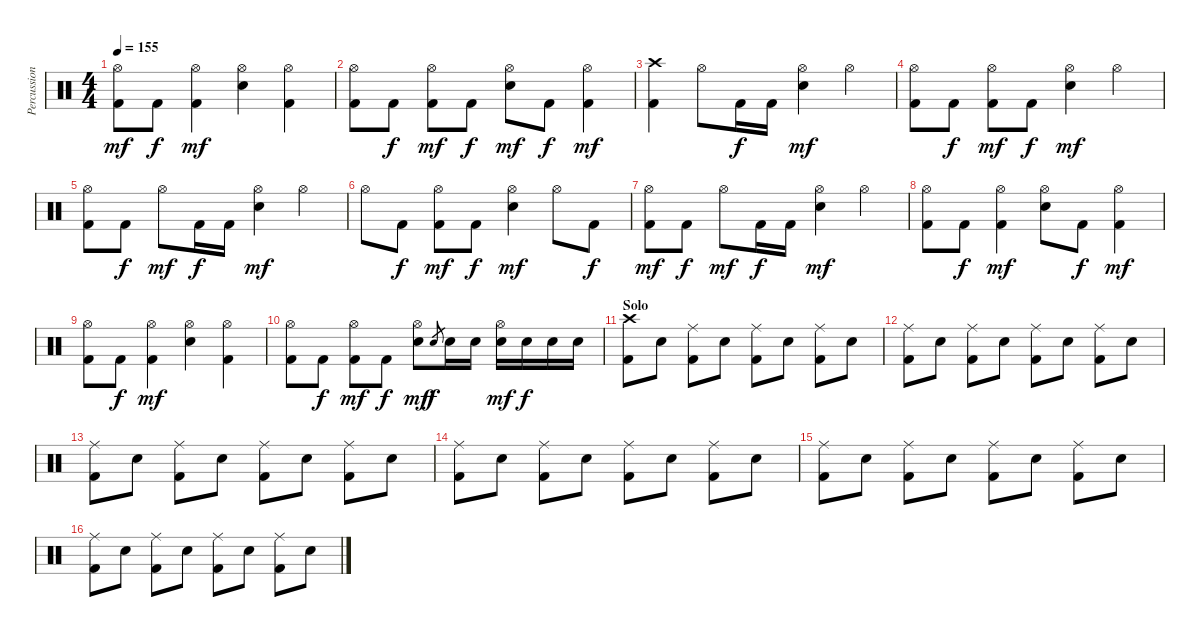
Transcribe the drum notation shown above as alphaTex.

\track ("Percussion" "Percussion") {instrument percussion}
\staff {score}
\articulation defaults
\ts (4 4)
\tempo 155
\clef neutral
\ks c
("Hi-Hat (open)" "Kick (hit) 2").8{dy mf} "Kick (hit) 2".8{dy f} ("Hi-Hat (open)" "Kick (hit) 2").4{dy mf} ("Hi-Hat (open)" "Electric Snare (hit)").4 ("Hi-Hat (open)" "Kick (hit) 2").4 |
("Hi-Hat (open)" "Kick (hit) 2").8 "Kick (hit) 2".8{dy f} ("Hi-Hat (open)" "Kick (hit) 2").8{dy mf} "Kick (hit) 2".8{dy f} ("Hi-Hat (open)" "Electric Snare (hit)").8{dy mf} "Kick (hit) 2".8{dy f} ("Hi-Hat (open)" "Kick (hit) 2").4{dy mf} |
("Crash high (hit)" "Kick (hit) 2").4 "Hi-Hat (open)".8 "Kick (hit) 2".16{dy f} "Kick (hit) 2".16 ("Hi-Hat (open)" "Electric Snare (hit)").4{dy mf} "Hi-Hat (open)".4 |
("Hi-Hat (open)" "Kick (hit) 2").8 "Kick (hit) 2".8{dy f} ("Hi-Hat (open)" "Kick (hit) 2").8{dy mf} "Kick (hit) 2".8{dy f} ("Hi-Hat (open)" "Electric Snare (hit)").4{dy mf} "Hi-Hat (open)".4 |
("Hi-Hat (open)" "Kick (hit) 2").8 "Kick (hit) 2".8{dy f} "Hi-Hat (open)".8{dy mf} "Kick (hit) 2".16{dy f} "Kick (hit) 2".16 ("Hi-Hat (open)" "Electric Snare (hit)").4{dy mf} "Hi-Hat (open)".4 |
"Hi-Hat (open)".8 "Kick (hit) 2".8{dy f} ("Hi-Hat (open)" "Kick (hit) 2").8{dy mf} "Kick (hit) 2".8{dy f} ("Hi-Hat (open)" "Electric Snare (hit)").4{dy mf} "Hi-Hat (open)".8 "Kick (hit) 2".8{dy f} |
("Hi-Hat (open)" "Kick (hit) 2").8{dy mf} "Kick (hit) 2".8{dy f} "Hi-Hat (open)".8{dy mf} "Kick (hit) 2".16{dy f} "Kick (hit) 2".16 ("Hi-Hat (open)" "Electric Snare (hit)").4{dy mf} "Hi-Hat (open)".4 |
("Hi-Hat (open)" "Kick (hit) 2").8 "Kick (hit) 2".8{dy f} ("Hi-Hat (open)" "Kick (hit) 2").4{dy mf} ("Hi-Hat (open)" "Electric Snare (hit)").8 "Kick (hit) 2".8{dy f} ("Hi-Hat (open)" "Kick (hit) 2").4{dy mf} |
("Hi-Hat (open)" "Kick (hit) 2").8 "Kick (hit) 2".8{dy f} ("Hi-Hat (open)" "Kick (hit) 2").4{dy mf} ("Hi-Hat (open)" "Electric Snare (hit)").4 ("Hi-Hat (open)" "Kick (hit) 2").4 |
("Hi-Hat (open)" "Kick (hit) 2").8 "Kick (hit) 2".8{dy f} ("Hi-Hat (open)" "Kick (hit) 2").8{dy mf} "Kick (hit) 2".8{dy f} ("Hi-Hat (open)" "Electric Snare (hit)").8{dy mf} "Electric Snare (hit)".8{gr dy f} "Electric Snare (hit)".16 "Electric Snare (hit)".16 ("Hi-Hat (open)" "Electric Snare (hit)").16{dy mf} "Electric Snare (hit)".16{dy f} "Electric Snare (hit)".16 "Electric Snare (hit)".16 |
\section ("" "Solo")
("Crash high (hit)" "Kick (hit) 2").8 "Electric Snare (hit)".8 ("Ride (middle)" "Kick (hit) 2").8 "Electric Snare (hit)".8 ("Ride (middle)" "Kick (hit) 2").8 "Electric Snare (hit)".8 ("Ride (middle)" "Kick (hit) 2").8 "Electric Snare (hit)".8 |
("Ride (middle)" "Kick (hit) 2").8 "Electric Snare (hit)".8 ("Ride (middle)" "Kick (hit) 2").8 "Electric Snare (hit)".8 ("Ride (middle)" "Kick (hit) 2").8 "Electric Snare (hit)".8 ("Ride (middle)" "Kick (hit) 2").8 "Electric Snare (hit)".8 |
("Ride (middle)" "Kick (hit) 2").8 "Electric Snare (hit)".8 ("Ride (middle)" "Kick (hit) 2").8 "Electric Snare (hit)".8 ("Ride (middle)" "Kick (hit) 2").8 "Electric Snare (hit)".8 ("Ride (middle)" "Kick (hit) 2").8 "Electric Snare (hit)".8 |
("Ride (middle)" "Kick (hit) 2").8 "Electric Snare (hit)".8 ("Ride (middle)" "Kick (hit) 2").8 "Electric Snare (hit)".8 ("Ride (middle)" "Kick (hit) 2").8 "Electric Snare (hit)".8 ("Ride (middle)" "Kick (hit) 2").8 "Electric Snare (hit)".8 |
("Ride (middle)" "Kick (hit) 2").8 "Electric Snare (hit)".8 ("Ride (middle)" "Kick (hit) 2").8 "Electric Snare (hit)".8 ("Ride (middle)" "Kick (hit) 2").8 "Electric Snare (hit)".8 ("Ride (middle)" "Kick (hit) 2").8 "Electric Snare (hit)".8 |
("Ride (middle)" "Kick (hit) 2").8 "Electric Snare (hit)".8 ("Ride (middle)" "Kick (hit) 2").8 "Electric Snare (hit)".8 ("Ride (middle)" "Kick (hit) 2").8 "Electric Snare (hit)".8 ("Ride (middle)" "Kick (hit) 2").8 "Electric Snare (hit)".8
